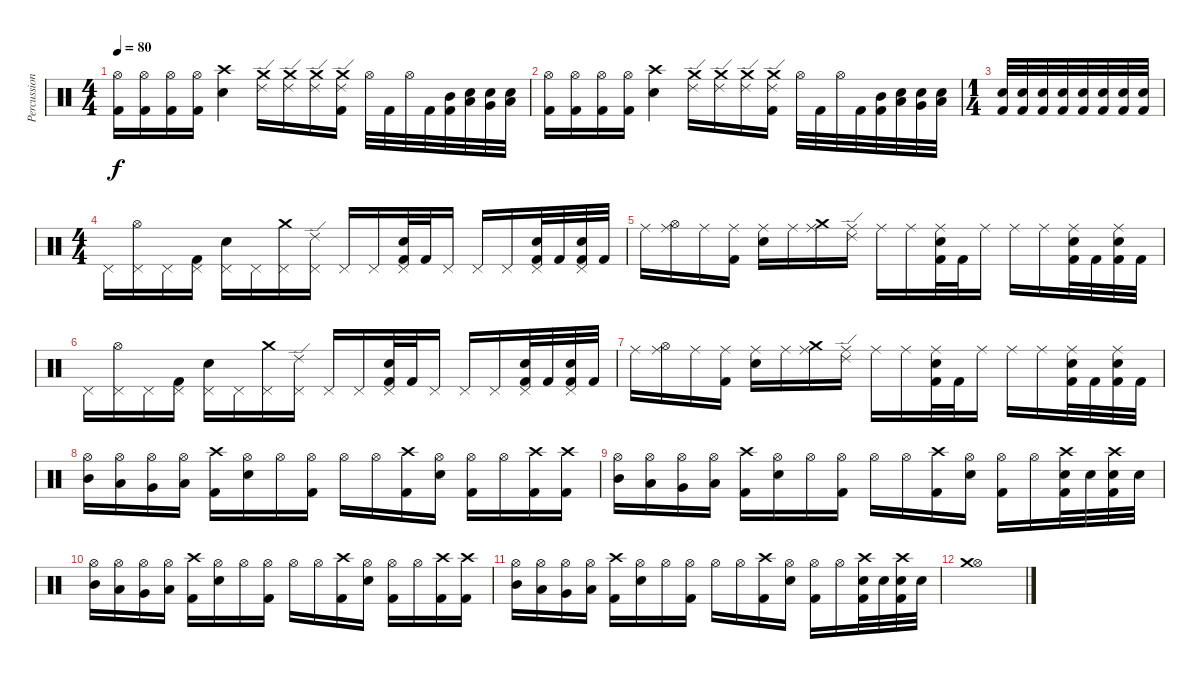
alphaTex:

\track ("Percussions" "Percussion") {instrument percussion}
\staff {score}
\articulation defaults
\ts (4 4)
\tempo 80
\clef neutral
\ks c
("Kick (hit) 2" "Hi-Hat (open)").16{dy f} ("Kick (hit) 2" "Hi-Hat (open)").16 ("Kick (hit) 2" "Hi-Hat (open)").16 ("Kick (hit) 2" "Hi-Hat (open)").16 ("Snare (hit) 2" "Crash high (hit)").4 ("Ride (edge) 2" "Crash medium (hit)").16 ("Ride (edge) 2" "Crash medium (hit)").16 ("Ride (edge) 2" "Crash medium (hit)").16 ("Ride (edge) 2" "Crash medium (hit)" "Kick (hit) 2").16 "Hi-Hat (open)".32 "Kick (hit) 2".32 "Hi-Hat (open)".32 "Kick (hit) 2".32 ("Mid Tom (hit)" "Kick (hit) 2").32 ("Low Tom (hit)" "Snare (hit) 2").32 ("Very Low Tom (hit)" "Snare (hit) 2").32 ("Low Floor Tom (hit)" "Snare (hit) 2").32 |
("Kick (hit) 2" "Hi-Hat (open)").16 ("Kick (hit) 2" "Hi-Hat (open)").16 ("Kick (hit) 2" "Hi-Hat (open)").16 ("Kick (hit) 2" "Hi-Hat (open)").16 ("Snare (hit) 2" "Crash high (hit)").4 ("Ride (edge) 2" "Crash medium (hit)").16 ("Ride (edge) 2" "Crash medium (hit)").16 ("Ride (edge) 2" "Crash medium (hit)").16 ("Ride (edge) 2" "Crash medium (hit)" "Kick (hit) 2").16 "Hi-Hat (open)".32 "Kick (hit) 2".32 "Hi-Hat (open)".32 "Kick (hit) 2".32 ("Mid Tom (hit)" "Kick (hit) 2").32 ("Low Tom (hit)" "Snare (hit) 2").32 ("Very Low Tom (hit)" "Snare (hit) 2").32 ("Low Floor Tom (hit)" "Snare (hit) 2").32 |
\ts (1 4)
("Kick (hit) 2" "Electric Snare (hit)").32 ("Kick (hit) 2" "Electric Snare (hit)").32 ("Kick (hit) 2" "Electric Snare (hit)").32 ("Kick (hit) 2" "Electric Snare (hit)").32 ("Kick (hit) 2" "Electric Snare (hit)").32 ("Kick (hit) 2" "Electric Snare (hit)").32 ("Kick (hit) 2" "Electric Snare (hit)").32 ("Kick (hit) 2" "Electric Snare (hit)").32 |
\ts (4 4)
"Pedal Hi-Hat (hit)".16 ("Pedal Hi-Hat (hit)" "Hi-Hat (open)").16 "Pedal Hi-Hat (hit)".16 ("Pedal Hi-Hat (hit)" "Kick (hit) 2").16 ("Pedal Hi-Hat (hit)" "Electric Snare (hit)").16 "Pedal Hi-Hat (hit)".16 ("Pedal Hi-Hat (hit)" "Crash medium (hit)").16 ("Pedal Hi-Hat (hit)" "Ride (edge) 2").16 "Pedal Hi-Hat (hit)".16 "Pedal Hi-Hat (hit)".16 ("Pedal Hi-Hat (hit)" "Kick (hit) 2" "Electric Snare (hit)").32 "Kick (hit) 2".32 "Pedal Hi-Hat (hit)".16 "Pedal Hi-Hat (hit)".16 "Pedal Hi-Hat (hit)".16 ("Pedal Hi-Hat (hit)" "Electric Snare (hit)" "Kick (hit) 2").32 "Kick (hit) 2".32 ("Pedal Hi-Hat (hit)" "Electric Snare (hit)" "Kick (hit) 2").32 "Kick (hit) 2".32 |
"Ride (middle)".16 ("Ride (middle)" "Hi-Hat (open)").16 "Ride (middle)".16 ("Ride (middle)" "Kick (hit) 2").16 ("Ride (middle)" "Electric Snare (hit)").16 "Ride (middle)".16 ("Ride (middle)" "Crash medium (hit)").16 ("Ride (middle)" "Ride (edge) 2").16 "Ride (middle)".16 "Ride (middle)".16 ("Ride (middle)" "Kick (hit) 2" "Electric Snare (hit)").32 "Kick (hit) 2".32 "Ride (middle)".16 "Ride (middle)".16 "Ride (middle)".16 ("Ride (middle)" "Electric Snare (hit)" "Kick (hit) 2").32 "Kick (hit) 2".32 ("Ride (middle)" "Electric Snare (hit)" "Kick (hit) 2").32 "Kick (hit) 2".32 |
"Pedal Hi-Hat (hit)".16 ("Pedal Hi-Hat (hit)" "Hi-Hat (open)").16 "Pedal Hi-Hat (hit)".16 ("Pedal Hi-Hat (hit)" "Kick (hit) 2").16 ("Pedal Hi-Hat (hit)" "Electric Snare (hit)").16 "Pedal Hi-Hat (hit)".16 ("Pedal Hi-Hat (hit)" "Crash medium (hit)").16 ("Pedal Hi-Hat (hit)" "Ride (edge) 2").16 "Pedal Hi-Hat (hit)".16 "Pedal Hi-Hat (hit)".16 ("Pedal Hi-Hat (hit)" "Kick (hit) 2" "Electric Snare (hit)").32 "Kick (hit) 2".32 "Pedal Hi-Hat (hit)".16 "Pedal Hi-Hat (hit)".16 "Pedal Hi-Hat (hit)".16 ("Pedal Hi-Hat (hit)" "Electric Snare (hit)" "Kick (hit) 2").32 "Kick (hit) 2".32 ("Pedal Hi-Hat (hit)" "Electric Snare (hit)" "Kick (hit) 2").32 "Kick (hit) 2".32 |
"Ride (middle)".16 ("Ride (middle)" "Hi-Hat (open)").16 "Ride (middle)".16 ("Ride (middle)" "Kick (hit) 2").16 ("Ride (middle)" "Electric Snare (hit)").16 "Ride (middle)".16 ("Ride (middle)" "Crash medium (hit)").16 ("Ride (middle)" "Ride (edge) 2").16 "Ride (middle)".16 "Ride (middle)".16 ("Ride (middle)" "Kick (hit) 2" "Electric Snare (hit)").32 "Kick (hit) 2".32 "Ride (middle)".16 "Ride (middle)".16 "Ride (middle)".16 ("Ride (middle)" "Electric Snare (hit)" "Kick (hit) 2").32 "Kick (hit) 2".32 ("Ride (middle)" "Electric Snare (hit)" "Kick (hit) 2").32 "Kick (hit) 2".32 |
("Hi-Hat (open)" "Mid Tom (hit)").16 ("Hi-Hat (open)" "Low Tom (hit)").16 ("Hi-Hat (open)" "Very Low Tom (hit)").16 ("Hi-Hat (open)" "Low Floor Tom (hit)").16 ("Crash high (hit)" "Kick (hit) 2").16 ("Hi-Hat (open)" "Snare (hit) 2").16 "Hi-Hat (open)".16 ("Hi-Hat (open)" "Kick (hit) 2").16 "Hi-Hat (open)".16 "Hi-Hat (open)".16 ("Crash high (hit)" "Kick (hit) 2").16 ("Hi-Hat (open)" "Snare (hit) 2").16 ("Hi-Hat (open)" "Kick (hit) 2").16 "Hi-Hat (open)".16 ("Crash high (hit)" "Kick (hit) 2").16 ("Crash high (hit)" "Kick (hit) 2").16 |
("Hi-Hat (open)" "Mid Tom (hit)").16 ("Hi-Hat (open)" "Low Tom (hit)").16 ("Hi-Hat (open)" "Very Low Tom (hit)").16 ("Hi-Hat (open)" "Low Floor Tom (hit)").16 ("Crash high (hit)" "Kick (hit) 2").16 ("Hi-Hat (open)" "Snare (hit) 2").16 "Hi-Hat (open)".16 ("Hi-Hat (open)" "Kick (hit) 2").16 "Hi-Hat (open)".16 "Hi-Hat (open)".16 ("Crash high (hit)" "Kick (hit) 2").16 ("Hi-Hat (open)" "Snare (hit) 2").16 ("Hi-Hat (open)" "Kick (hit) 2").16 "Hi-Hat (open)".16 ("Crash high (hit)" "Kick (hit) 2" "Snare (hit) 2").32 "Snare (hit) 2".32 ("Crash high (hit)" "Kick (hit) 2" "Snare (hit) 2").32 "Snare (hit) 2".32 |
("Hi-Hat (open)" "Mid Tom (hit)").16 ("Hi-Hat (open)" "Low Tom (hit)").16 ("Hi-Hat (open)" "Very Low Tom (hit)").16 ("Hi-Hat (open)" "Low Floor Tom (hit)").16 ("Crash high (hit)" "Kick (hit) 2").16 ("Hi-Hat (open)" "Snare (hit) 2").16 "Hi-Hat (open)".16 ("Hi-Hat (open)" "Kick (hit) 2").16 "Hi-Hat (open)".16 "Hi-Hat (open)".16 ("Crash high (hit)" "Kick (hit) 2").16 ("Hi-Hat (open)" "Snare (hit) 2").16 ("Hi-Hat (open)" "Kick (hit) 2").16 "Hi-Hat (open)".16 ("Crash high (hit)" "Kick (hit) 2").16 ("Crash high (hit)" "Kick (hit) 2").16 |
("Hi-Hat (open)" "Mid Tom (hit)").16 ("Hi-Hat (open)" "Low Tom (hit)").16 ("Hi-Hat (open)" "Very Low Tom (hit)").16 ("Hi-Hat (open)" "Low Floor Tom (hit)").16 ("Crash high (hit)" "Kick (hit) 2").16 ("Hi-Hat (open)" "Snare (hit) 2").16 "Hi-Hat (open)".16 ("Hi-Hat (open)" "Kick (hit) 2").16 "Hi-Hat (open)".16 "Hi-Hat (open)".16 ("Crash high (hit)" "Kick (hit) 2").16 ("Hi-Hat (open)" "Snare (hit) 2").16 ("Hi-Hat (open)" "Kick (hit) 2").16 "Hi-Hat (open)".16 ("Crash high (hit)" "Kick (hit) 2" "Snare (hit) 2").32 "Snare (hit) 2".32 ("Crash high (hit)" "Kick (hit) 2" "Snare (hit) 2").32 "Snare (hit)"{x}.32 |
("Hi-Hat (open)" "Crash medium (hit)").1
